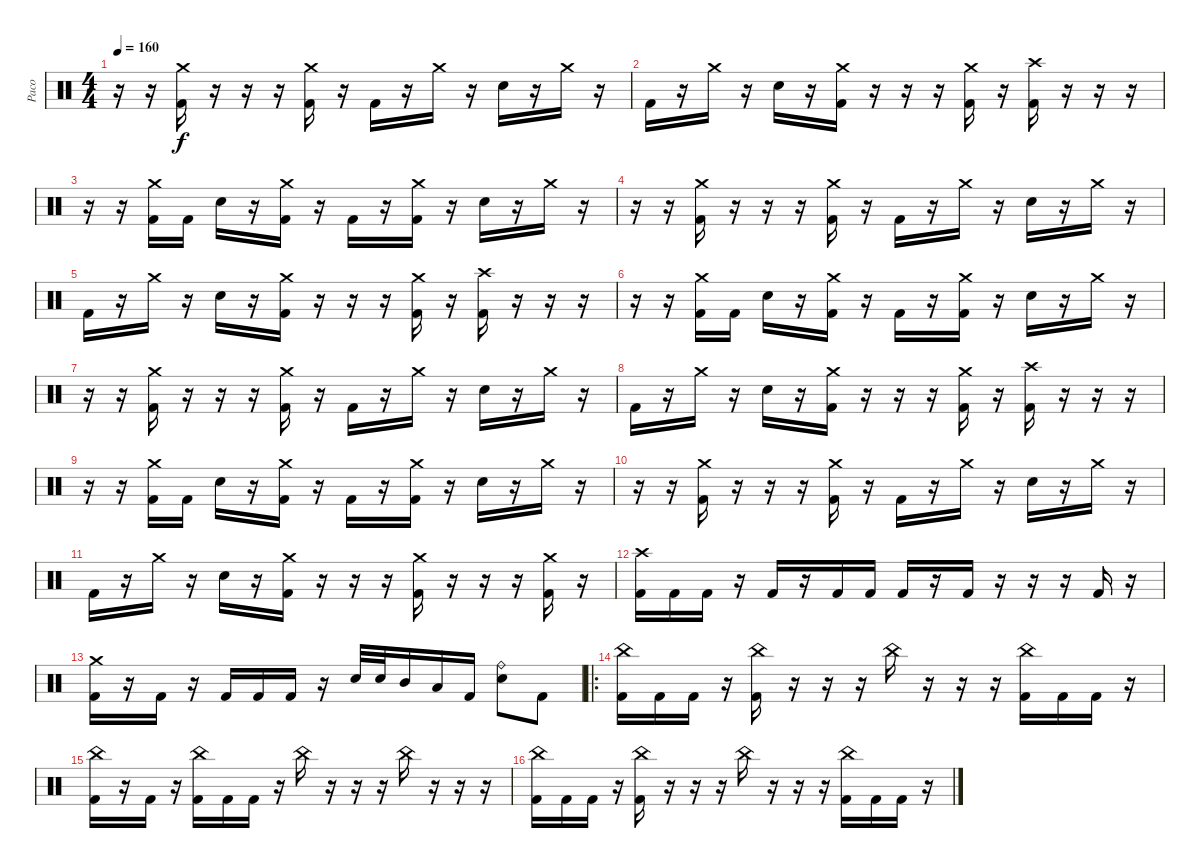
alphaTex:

\track ("Paco" "Paco") {instrument percussion}
\staff {score}
\articulation defaults
\ts (4 4)
\tempo 160
\clef neutral
\ks c
r.16{dy f} r.16 ("Crash medium (hit)" "Kick (hit) 2").16 r.16 r.16 r.16 ("Crash medium (hit)" "Kick (hit) 2").16 r.16 "Kick (hit) 2".16 r.16 "Crash medium (hit)".16 r.16 "Electric Snare (hit)".16 r.16 "Crash medium (hit)".16 r.16 |
"Kick (hit) 2".16 r.16 "Crash medium (hit)".16 r.16 "Electric Snare (hit)".16 r.16 ("Crash medium (hit)" "Kick (hit) 2").16 r.16 r.16 r.16 ("Crash medium (hit)" "Kick (hit) 2").16 r.16 ("Crash high (hit)" "Kick (hit) 2").16 r.16 r.16 r.16 |
r.16 r.16 ("Crash medium (hit)" "Kick (hit) 2").16 "Kick (hit) 2".16 "Electric Snare (hit)".16 r.16 ("Crash medium (hit)" "Kick (hit) 2").16 r.16 "Kick (hit) 2".16 r.16 ("Crash medium (hit)" "Kick (hit) 2").16 r.16 "Electric Snare (hit)".16 r.16 "Crash medium (hit)".16 r.16 |
r.16 r.16 ("Crash medium (hit)" "Kick (hit) 2").16 r.16 r.16 r.16 ("Crash medium (hit)" "Kick (hit) 2").16 r.16 "Kick (hit) 2".16 r.16 "Crash medium (hit)".16 r.16 "Electric Snare (hit)".16 r.16 "Crash medium (hit)".16 r.16 |
"Kick (hit) 2".16 r.16 "Crash medium (hit)".16 r.16 "Electric Snare (hit)".16 r.16 ("Crash medium (hit)" "Kick (hit) 2").16 r.16 r.16 r.16 ("Crash medium (hit)" "Kick (hit) 2").16 r.16 ("Crash high (hit)" "Kick (hit) 2").16 r.16 r.16 r.16 |
r.16 r.16 ("Crash medium (hit)" "Kick (hit) 2").16 "Kick (hit) 2".16 "Electric Snare (hit)".16 r.16 ("Crash medium (hit)" "Kick (hit) 2").16 r.16 "Kick (hit) 2".16 r.16 ("Crash medium (hit)" "Kick (hit) 2").16 r.16 "Electric Snare (hit)".16 r.16 "Crash medium (hit)".16 r.16 |
r.16 r.16 ("Crash medium (hit)" "Kick (hit) 2").16 r.16 r.16 r.16 ("Crash medium (hit)" "Kick (hit) 2").16 r.16 "Kick (hit) 2".16 r.16 "Crash medium (hit)".16 r.16 "Electric Snare (hit)".16 r.16 "Crash medium (hit)".16 r.16 |
"Kick (hit) 2".16 r.16 "Crash medium (hit)".16 r.16 "Electric Snare (hit)".16 r.16 ("Crash medium (hit)" "Kick (hit) 2").16 r.16 r.16 r.16 ("Crash medium (hit)" "Kick (hit) 2").16 r.16 ("Crash high (hit)" "Kick (hit) 2").16 r.16 r.16 r.16 |
r.16 r.16 ("Crash medium (hit)" "Kick (hit) 2").16 "Kick (hit) 2".16 "Electric Snare (hit)".16 r.16 ("Crash medium (hit)" "Kick (hit) 2").16 r.16 "Kick (hit) 2".16 r.16 ("Crash medium (hit)" "Kick (hit) 2").16 r.16 "Electric Snare (hit)".16 r.16 "Crash medium (hit)".16 r.16 |
r.16 r.16 ("Crash medium (hit)" "Kick (hit) 2").16 r.16 r.16 r.16 ("Crash medium (hit)" "Kick (hit) 2").16 r.16 "Kick (hit) 2".16 r.16 "Crash medium (hit)".16 r.16 "Electric Snare (hit)".16 r.16 "Crash medium (hit)".16 r.16 |
"Kick (hit) 2".16 r.16 "Crash medium (hit)".16 r.16 "Electric Snare (hit)".16 r.16 ("Crash medium (hit)" "Kick (hit) 2").16 r.16 r.16 r.16 ("Crash medium (hit)" "Kick (hit) 2").16 r.16 r.16 r.16 ("Crash medium (hit)" "Kick (hit) 2").16 r.16 |
("Crash high (hit)" "Kick (hit) 2").16 "Kick (hit) 2".16 "Kick (hit) 2".16 r.16 "Kick (hit) 2".16 r.16 "Kick (hit) 2".16 "Kick (hit) 2".16 "Kick (hit) 2".16 r.16 "Kick (hit) 2".16 r.16 r.16 r.16 "Kick (hit) 2".16 r.16 |
("Crash medium (hit)" "Kick (hit) 2").16 r.16 "Kick (hit) 2".16 r.16 "Kick (hit) 2".16 "Kick (hit) 2".16 "Kick (hit) 2".16 r.16 "Electric Snare (hit)".32 "Electric Snare (hit)".32 "Mid Tom (hit)".16 "Low Tom (hit)".16 "Kick (hit) 2".16 ("Ride (bell)" "Electric Snare (hit)").8 "Kick (hit) 2".8 |
\ro
("China (hit)" "Kick (hit) 2").16 "Kick (hit) 2".16 "Kick (hit) 2".16 r.16 ("China (hit)" "Kick (hit) 2").16 r.16 r.16 r.16 "China (hit)".16 r.16 r.16 r.16 ("China (hit)" "Kick (hit) 2").16 "Kick (hit) 2".16 "Kick (hit) 2".16 r.16 |
("China (hit)" "Kick (hit) 2").16 r.16 "Kick (hit) 2".16 r.16 ("China (hit)" "Kick (hit) 2").16 "Kick (hit) 2".16 "Kick (hit) 2".16 r.16 "China (hit)".16 r.16 r.16 r.16 "China (hit)".16 r.16 r.16 r.16 |
("China (hit)" "Kick (hit) 2").16 "Kick (hit) 2".16 "Kick (hit) 2".16 r.16 ("China (hit)" "Kick (hit) 2").16 r.16 r.16 r.16 "China (hit)".16 r.16 r.16 r.16 ("China (hit)" "Kick (hit) 2").16 "Kick (hit) 2".16 "Kick (hit) 2".16 r.16
